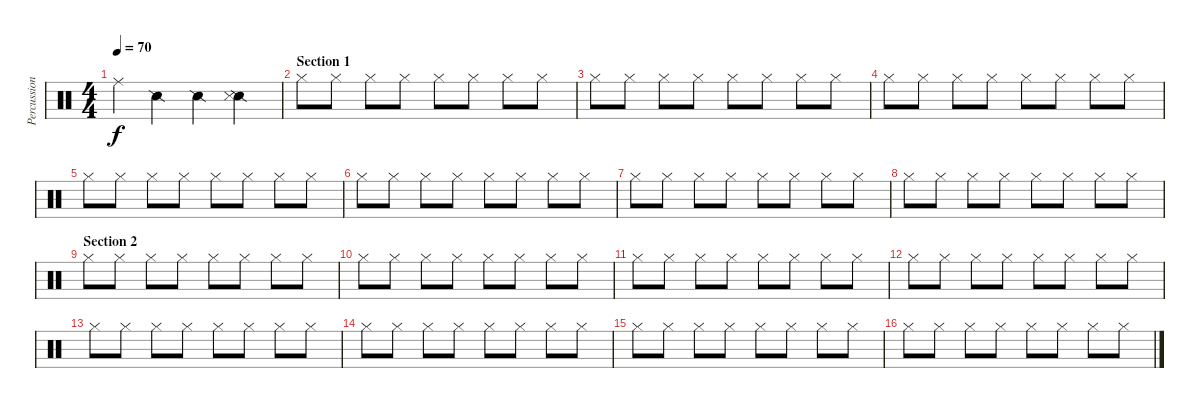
\track ("Percussion" "Percussion") {instrument percussion}
\staff {score}
\articulation defaults
\ts (4 4)
\tempo 70
\clef neutral
\ks c "Ride (middle)".4{dy f} "Snare (side stick) 2".4 "Snare (side stick) 2".4
("Snare (side stick) 2" "Snare (side stick) 3").4 |
\section ("" "Section 1")
"Hi-Hat (closed)".8 "Hi-Hat (closed)".8 "Hi-Hat (closed)".8 "Hi-Hat (closed)".8 "Hi-Hat (closed)".8 "Hi-Hat (closed)".8 "Hi-Hat (closed)".8 "Hi-Hat (closed)".8 |
"Hi-Hat (closed)".8 "Hi-Hat (closed)".8 "Hi-Hat (closed)".8 "Hi-Hat (closed)".8 "Hi-Hat (closed)".8 "Hi-Hat (closed)".8 "Hi-Hat (closed)".8 "Hi-Hat (closed)".8 |
"Hi-Hat (closed)".8 "Hi-Hat (closed)".8 "Hi-Hat (closed)".8 "Hi-Hat (closed)".8 "Hi-Hat (closed)".8 "Hi-Hat (closed)".8 "Hi-Hat (closed)".8 "Hi-Hat (closed)".8 |
"Hi-Hat (closed)".8 "Hi-Hat (closed)".8 "Hi-Hat (closed)".8 "Hi-Hat (closed)".8 "Hi-Hat (closed)".8 "Hi-Hat (closed)".8 "Hi-Hat (closed)".8 "Hi-Hat (closed)".8 |
"Hi-Hat (closed)".8 "Hi-Hat (closed)".8 "Hi-Hat (closed)".8 "Hi-Hat (closed)".8 "Hi-Hat (closed)".8 "Hi-Hat (closed)".8 "Hi-Hat (closed)".8 "Hi-Hat (closed)".8 |
"Hi-Hat (closed)".8 "Hi-Hat (closed)".8 "Hi-Hat (closed)".8 "Hi-Hat (closed)".8 "Hi-Hat (closed)".8 "Hi-Hat (closed)".8 "Hi-Hat (closed)".8 "Hi-Hat (closed)".8 |
"Hi-Hat (closed)".8 "Hi-Hat (closed)".8 "Hi-Hat (closed)".8 "Hi-Hat (closed)".8 "Hi-Hat (closed)".8 "Hi-Hat (closed)".8 "Hi-Hat (closed)".8 "Hi-Hat (closed)".8 |
\section ("" "Section 2")
"Hi-Hat (closed)".8 "Hi-Hat (closed)".8 "Hi-Hat (closed)".8 "Hi-Hat (closed)".8 "Hi-Hat (closed)".8 "Hi-Hat (closed)".8 "Hi-Hat (closed)".8 "Hi-Hat (closed)".8 |
"Hi-Hat (closed)".8 "Hi-Hat (closed)".8 "Hi-Hat (closed)".8 "Hi-Hat (closed)".8 "Hi-Hat (closed)".8 "Hi-Hat (closed)".8 "Hi-Hat (closed)".8 "Hi-Hat (closed)".8 |
"Hi-Hat (closed)".8 "Hi-Hat (closed)".8 "Hi-Hat (closed)".8 "Hi-Hat (closed)".8 "Hi-Hat (closed)".8 "Hi-Hat (closed)".8 "Hi-Hat (closed)".8 "Hi-Hat (closed)".8 |
"Hi-Hat (closed)".8 "Hi-Hat (closed)".8 "Hi-Hat (closed)".8 "Hi-Hat (closed)".8 "Hi-Hat (closed)".8 "Hi-Hat (closed)".8 "Hi-Hat (closed)".8 "Hi-Hat (closed)".8 |
"Hi-Hat (closed)".8 "Hi-Hat (closed)".8 "Hi-Hat (closed)".8 "Hi-Hat (closed)".8 "Hi-Hat (closed)".8 "Hi-Hat (closed)".8 "Hi-Hat (closed)".8 "Hi-Hat (closed)".8 |
"Hi-Hat (closed)".8 "Hi-Hat (closed)".8 "Hi-Hat (closed)".8 "Hi-Hat (closed)".8 "Hi-Hat (closed)".8 "Hi-Hat (closed)".8 "Hi-Hat (closed)".8 "Hi-Hat (closed)".8 |
"Hi-Hat (closed)".8 "Hi-Hat (closed)".8 "Hi-Hat (closed)".8 "Hi-Hat (closed)".8 "Hi-Hat (closed)".8 "Hi-Hat (closed)".8 "Hi-Hat (closed)".8 "Hi-Hat (closed)".8 |
"Hi-Hat (closed)".8 "Hi-Hat (closed)".8 "Hi-Hat (closed)".8 "Hi-Hat (closed)".8 "Hi-Hat (closed)".8 "Hi-Hat (closed)".8 "Hi-Hat (closed)".8 "Hi-Hat (closed)".8
